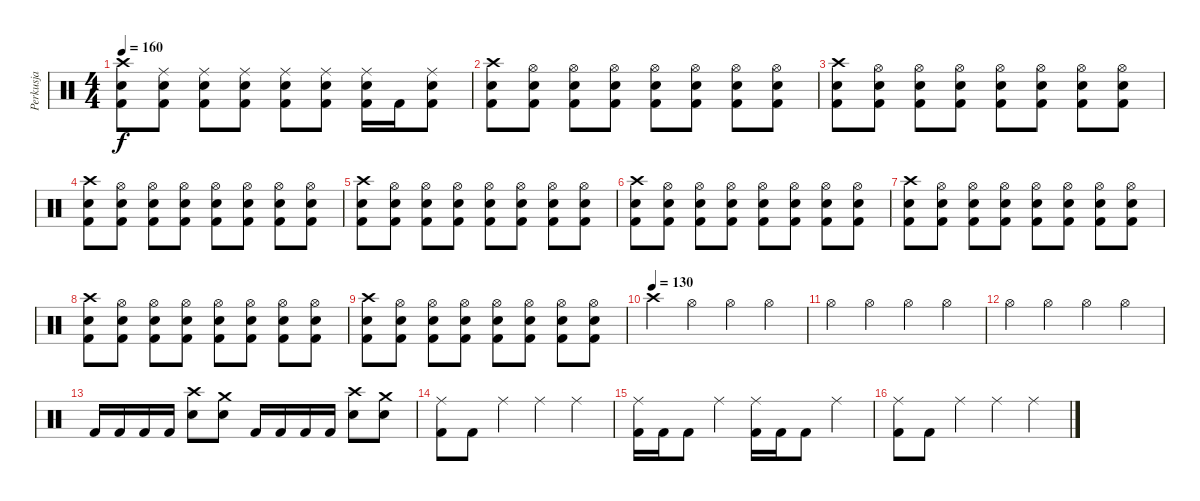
\track ("Perkusja" "Perkusja") {instrument percussion}
\staff {score}
\articulation defaults
\ts (4 4)
\tempo 160
\clef neutral
\ks c
("Crash high (hit)" "Electric Snare (hit)" "Kick (hit) 2").8{dy f} ("Ride (middle)" "Electric Snare (hit)" "Kick (hit) 2").8 ("Ride (middle)" "Electric Snare (hit)" "Kick (hit) 2").8 ("Ride (middle)" "Electric Snare (hit)" "Kick (hit) 2").8 ("Ride (middle)" "Electric Snare (hit)" "Kick (hit) 2").8 ("Ride (middle)" "Electric Snare (hit)" "Kick (hit) 2").8 ("Ride (middle)" "Electric Snare (hit)" "Kick (hit) 2").16 "Kick (hit) 2".16 ("Ride (middle)" "Electric Snare (hit)" "Kick (hit) 2").8 |
("Crash high (hit)" "Electric Snare (hit)" "Kick (hit) 2").8 ("Hi-Hat (open)" "Electric Snare (hit)" "Kick (hit) 2").8 ("Hi-Hat (open)" "Electric Snare (hit)" "Kick (hit) 2").8 ("Hi-Hat (open)" "Electric Snare (hit)" "Kick (hit) 2").8 ("Hi-Hat (open)" "Electric Snare (hit)" "Kick (hit) 2").8 ("Hi-Hat (open)" "Electric Snare (hit)" "Kick (hit) 2").8 ("Hi-Hat (open)" "Electric Snare (hit)" "Kick (hit) 2").8 ("Hi-Hat (open)" "Electric Snare (hit)" "Kick (hit) 2").8 |
("Crash high (hit)" "Electric Snare (hit)" "Kick (hit) 2").8 ("Hi-Hat (open)" "Electric Snare (hit)" "Kick (hit) 2").8 ("Hi-Hat (open)" "Electric Snare (hit)" "Kick (hit) 2").8 ("Hi-Hat (open)" "Electric Snare (hit)" "Kick (hit) 2").8 ("Hi-Hat (open)" "Electric Snare (hit)" "Kick (hit) 2").8 ("Hi-Hat (open)" "Electric Snare (hit)" "Kick (hit) 2").8 ("Hi-Hat (open)" "Electric Snare (hit)" "Kick (hit) 2").8 ("Hi-Hat (open)" "Electric Snare (hit)" "Kick (hit) 2").8 |
("Crash high (hit)" "Electric Snare (hit)" "Kick (hit) 2").8 ("Hi-Hat (open)" "Electric Snare (hit)" "Kick (hit) 2").8 ("Hi-Hat (open)" "Electric Snare (hit)" "Kick (hit) 2").8 ("Hi-Hat (open)" "Electric Snare (hit)" "Kick (hit) 2").8 ("Hi-Hat (open)" "Electric Snare (hit)" "Kick (hit) 2").8 ("Hi-Hat (open)" "Electric Snare (hit)" "Kick (hit) 2").8 ("Hi-Hat (open)" "Electric Snare (hit)" "Kick (hit) 2").8 ("Hi-Hat (open)" "Electric Snare (hit)" "Kick (hit) 2").8 |
("Crash high (hit)" "Electric Snare (hit)" "Kick (hit) 2").8 ("Hi-Hat (open)" "Electric Snare (hit)" "Kick (hit) 2").8 ("Hi-Hat (open)" "Electric Snare (hit)" "Kick (hit) 2").8 ("Hi-Hat (open)" "Electric Snare (hit)" "Kick (hit) 2").8 ("Hi-Hat (open)" "Electric Snare (hit)" "Kick (hit) 2").8 ("Hi-Hat (open)" "Electric Snare (hit)" "Kick (hit) 2").8 ("Hi-Hat (open)" "Electric Snare (hit)" "Kick (hit) 2").8 ("Hi-Hat (open)" "Electric Snare (hit)" "Kick (hit) 2").8 |
("Crash high (hit)" "Electric Snare (hit)" "Kick (hit) 2").8 ("Hi-Hat (open)" "Electric Snare (hit)" "Kick (hit) 2").8 ("Hi-Hat (open)" "Electric Snare (hit)" "Kick (hit) 2").8 ("Hi-Hat (open)" "Electric Snare (hit)" "Kick (hit) 2").8 ("Hi-Hat (open)" "Electric Snare (hit)" "Kick (hit) 2").8 ("Hi-Hat (open)" "Electric Snare (hit)" "Kick (hit) 2").8 ("Hi-Hat (open)" "Electric Snare (hit)" "Kick (hit) 2").8 ("Hi-Hat (open)" "Electric Snare (hit)" "Kick (hit) 2").8 |
("Crash high (hit)" "Electric Snare (hit)" "Kick (hit) 2").8 ("Hi-Hat (open)" "Electric Snare (hit)" "Kick (hit) 2").8 ("Hi-Hat (open)" "Electric Snare (hit)" "Kick (hit) 2").8 ("Hi-Hat (open)" "Electric Snare (hit)" "Kick (hit) 2").8 ("Hi-Hat (open)" "Electric Snare (hit)" "Kick (hit) 2").8 ("Hi-Hat (open)" "Electric Snare (hit)" "Kick (hit) 2").8 ("Hi-Hat (open)" "Electric Snare (hit)" "Kick (hit) 2").8 ("Hi-Hat (open)" "Electric Snare (hit)" "Kick (hit) 2").8 |
("Crash high (hit)" "Electric Snare (hit)" "Kick (hit) 2").8 ("Hi-Hat (open)" "Electric Snare (hit)" "Kick (hit) 2").8 ("Hi-Hat (open)" "Electric Snare (hit)" "Kick (hit) 2").8 ("Hi-Hat (open)" "Electric Snare (hit)" "Kick (hit) 2").8 ("Hi-Hat (open)" "Electric Snare (hit)" "Kick (hit) 2").8 ("Hi-Hat (open)" "Electric Snare (hit)" "Kick (hit) 2").8 ("Hi-Hat (open)" "Electric Snare (hit)" "Kick (hit) 2").8 ("Hi-Hat (open)" "Electric Snare (hit)" "Kick (hit) 2").8 |
("Crash high (hit)" "Electric Snare (hit)" "Kick (hit) 2").8 ("Hi-Hat (open)" "Electric Snare (hit)" "Kick (hit) 2").8 ("Hi-Hat (open)" "Electric Snare (hit)" "Kick (hit) 2").8 ("Hi-Hat (open)" "Electric Snare (hit)" "Kick (hit) 2").8 ("Hi-Hat (open)" "Electric Snare (hit)" "Kick (hit) 2").8 ("Hi-Hat (open)" "Electric Snare (hit)" "Kick (hit) 2").8 ("Hi-Hat (open)" "Electric Snare (hit)" "Kick (hit) 2").8 ("Hi-Hat (open)" "Electric Snare (hit)" "Kick (hit) 2").8 |
\tempo (130)
"Crash high (hit)".4 "Hi-Hat (open)".4 "Hi-Hat (open)".4 "Hi-Hat (open)".4 |
"Hi-Hat (open)".4 "Hi-Hat (open)".4 "Hi-Hat (open)".4 "Hi-Hat (open)".4 |
"Hi-Hat (open)".4 "Hi-Hat (open)".4 "Hi-Hat (open)".4 "Hi-Hat (open)".4 |
"Kick (hit) 2".16 "Kick (hit) 2".16 "Kick (hit) 2".16 "Kick (hit) 2".16 ("Crash high (hit)" "Electric Snare (hit)").8 ("Crash medium (hit)" "Electric Snare (hit)").8 "Kick (hit) 2".16 "Kick (hit) 2".16 "Kick (hit) 2".16 "Kick (hit) 2".16 ("Crash high (hit)" "Electric Snare (hit)").8 ("Crash medium (hit)" "Electric Snare (hit)").8 |
("Ride (middle)" "Kick (hit) 2").8 "Kick (hit) 2".8 "Ride (middle)".4 "Ride (middle)".4 "Ride (middle)".4 |
("Ride (middle)" "Kick (hit) 2").16 "Kick (hit) 2".16 "Kick (hit) 2".8 "Ride (middle)".4 ("Ride (middle)" "Kick (hit) 2").16 "Kick (hit) 2".16 "Kick (hit) 2".8 "Ride (middle)".4 |
("Ride (middle)" "Kick (hit) 2").8 "Kick (hit) 2".8 "Ride (middle)".4 "Ride (middle)".4 "Ride (middle)".4
